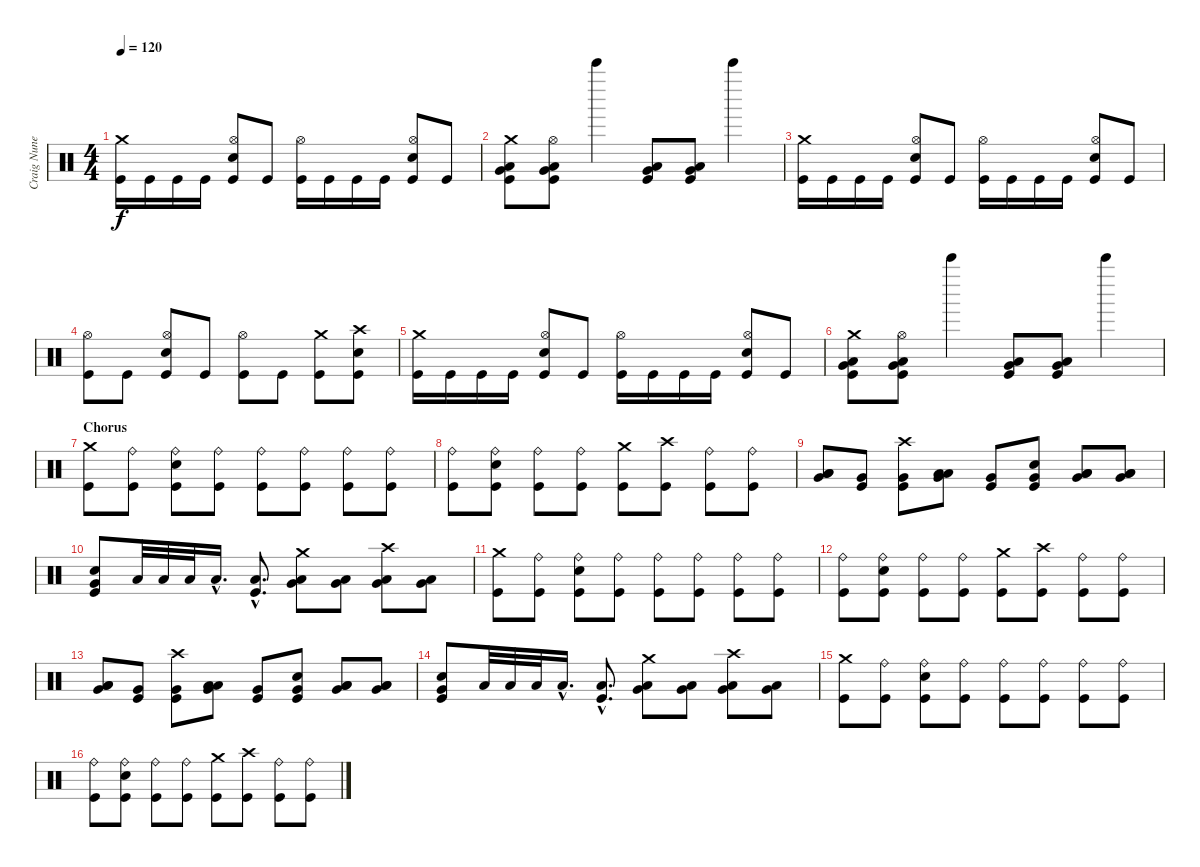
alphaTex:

\track ("Craig Nunenmacher" "Craig Nune") {instrument percussion}
\staff {score}
\articulation defaults
\ts (4 4)
\tempo 120
\clef neutral
\ks c
("Crash medium (hit)" "Kick (hit)").16{dy f} "Kick (hit)".16 "Kick (hit)".16 "Kick (hit)".16 ("Hi-Hat (open)" "Snare (hit) 2" "Kick (hit)").8 "Kick (hit)".8 ("Hi-Hat (open)" "Kick (hit)").16 "Kick (hit)".16 "Kick (hit)".16 "Kick (hit)".16 ("Hi-Hat (open)" "Snare (hit) 2" "Kick (hit)").8 "Kick (hit)".8 |
("Crash medium (hit)" "Low Tom (hit)" "Very Low Tom (hit)" "Kick (hit)").8 ("Hi-Hat (open)" "Low Tom (hit)" "Very Low Tom (hit)" "Kick (hit)").8 "Bell Tree (hit)".4 ("Low Tom (hit)" "Very Low Tom (hit)" "Kick (hit)").8 ("Low Tom (hit)" "Very Low Tom (hit)" "Kick (hit)").8 "Bell Tree (hit)".4 |
("Crash medium (hit)" "Kick (hit)").16 "Kick (hit)".16 "Kick (hit)".16 "Kick (hit)".16 ("Hi-Hat (open)" "Snare (hit) 2" "Kick (hit)").8 "Kick (hit)".8 ("Hi-Hat (open)" "Kick (hit)").16 "Kick (hit)".16 "Kick (hit)".16 "Kick (hit)".16 ("Hi-Hat (open)" "Snare (hit) 2" "Kick (hit)").8 "Kick (hit)".8 |
("Hi-Hat (open)" "Kick (hit)").8 "Kick (hit)".8 ("Hi-Hat (open)" "Snare (hit) 2" "Kick (hit)").8 "Kick (hit)".8 ("Hi-Hat (open)" "Kick (hit)").8 "Kick (hit)".8 ("Crash medium (hit)" "Kick (hit)").8 ("Crash high (hit)" "Snare (hit) 2" "Kick (hit)").8 |
("Crash medium (hit)" "Kick (hit)").16 "Kick (hit)".16 "Kick (hit)".16 "Kick (hit)".16 ("Hi-Hat (open)" "Snare (hit) 2" "Kick (hit)").8 "Kick (hit)".8 ("Hi-Hat (open)" "Kick (hit)").16 "Kick (hit)".16 "Kick (hit)".16 "Kick (hit)".16 ("Hi-Hat (open)" "Snare (hit) 2" "Kick (hit)").8 "Kick (hit)".8 |
("Crash medium (hit)" "Low Tom (hit)" "Very Low Tom (hit)" "Kick (hit)").8 ("Hi-Hat (open)" "Low Tom (hit)" "Very Low Tom (hit)" "Kick (hit)").8 "Bell Tree (hit)".4 ("Low Tom (hit)" "Very Low Tom (hit)" "Kick (hit)").8 ("Low Tom (hit)" "Very Low Tom (hit)" "Kick (hit)").8 "Bell Tree (hit)".4 |
\section ("" "Chorus")
("Crash medium (hit)" "Kick (hit)").8 ("Ride (bell)" "Kick (hit)").8 ("Ride (bell)" "Snare (hit) 2" "Kick (hit)").8 ("Ride (bell)" "Kick (hit)").8 ("Ride (bell)" "Kick (hit)").8 ("Ride (bell)" "Kick (hit)").8 ("Ride (bell)" "Kick (hit)").8 ("Ride (bell)" "Kick (hit)").8 |
("Ride (bell)" "Kick (hit)").8 ("Ride (bell)" "Snare (hit) 2" "Kick (hit)").8 ("Ride (bell)" "Kick (hit)").8 ("Ride (bell)" "Kick (hit)").8 ("Crash medium (hit)" "Kick (hit)").8 ("Crash high (hit)" "Kick (hit)").8 ("Ride (bell)" "Kick (hit)").8 ("Ride (bell)" "Kick (hit)").8 |
("Low Tom (hit)" "Low Tom (hit)" "Very Low Tom (hit)").8{bd 120} ("Very Low Tom (hit)" "Kick (hit)").8 ("Crash high (hit)" "Very Low Tom (hit)" "Kick (hit)").8 ("Low Tom (hit)" "Low Tom (hit)" "Very Low Tom (hit)").8{bd 120} ("Very Low Tom (hit)" "Kick (hit)").8 ("Snare (hit) 2" "Very Low Tom (hit)" "Kick (hit)").8 ("Low Tom (hit)" "Low Tom (hit)" "Very Low Tom (hit)").8{bd 120} ("Low Tom (hit)" "Low Tom (hit)" "Very Low Tom (hit)").8{bd 120} |
("Snare (hit) 2" "Very Low Tom (hit)" "Kick (hit)").8 "Low Tom (hit)".32 "Low Tom (hit)".32 "Low Tom (hit)".32 "Low Tom (hit)"{hac}.16{d} ("Low Tom (hit)"{hac} "Kick (hit)"{hac}).8{d} ("Crash medium (hit)" "Low Tom (hit)" "Very Low Tom (hit)").8 ("Low Tom (hit)" "Very Low Tom (hit)").8 ("Crash high (hit)" "Low Tom (hit)" "Very Low Tom (hit)").8 ("Low Tom (hit)" "Very Low Tom (hit)").8 |
("Crash medium (hit)" "Kick (hit)").8 ("Ride (bell)" "Kick (hit)").8 ("Ride (bell)" "Snare (hit) 2" "Kick (hit)").8 ("Ride (bell)" "Kick (hit)").8 ("Ride (bell)" "Kick (hit)").8 ("Ride (bell)" "Kick (hit)").8 ("Ride (bell)" "Kick (hit)").8 ("Ride (bell)" "Kick (hit)").8 |
("Ride (bell)" "Kick (hit)").8 ("Ride (bell)" "Snare (hit) 2" "Kick (hit)").8 ("Ride (bell)" "Kick (hit)").8 ("Ride (bell)" "Kick (hit)").8 ("Crash medium (hit)" "Kick (hit)").8 ("Crash high (hit)" "Kick (hit)").8 ("Ride (bell)" "Kick (hit)").8 ("Ride (bell)" "Kick (hit)").8 |
("Low Tom (hit)" "Low Tom (hit)" "Very Low Tom (hit)").8{bd 120} ("Very Low Tom (hit)" "Kick (hit)").8 ("Crash high (hit)" "Very Low Tom (hit)" "Kick (hit)").8 ("Low Tom (hit)" "Low Tom (hit)" "Very Low Tom (hit)").8{bd 120} ("Very Low Tom (hit)" "Kick (hit)").8 ("Snare (hit) 2" "Very Low Tom (hit)" "Kick (hit)").8 ("Low Tom (hit)" "Low Tom (hit)" "Very Low Tom (hit)").8{bd 120} ("Low Tom (hit)" "Low Tom (hit)" "Very Low Tom (hit)").8{bd 120} |
("Snare (hit) 2" "Very Low Tom (hit)" "Kick (hit)").8 "Low Tom (hit)".32 "Low Tom (hit)".32 "Low Tom (hit)".32 "Low Tom (hit)"{hac}.16{d} ("Low Tom (hit)"{hac} "Kick (hit)"{hac}).8{d} ("Crash medium (hit)" "Low Tom (hit)" "Very Low Tom (hit)").8 ("Low Tom (hit)" "Very Low Tom (hit)").8 ("Crash high (hit)" "Low Tom (hit)" "Very Low Tom (hit)").8 ("Low Tom (hit)" "Very Low Tom (hit)").8 |
("Crash medium (hit)" "Kick (hit)").8 ("Ride (bell)" "Kick (hit)").8 ("Ride (bell)" "Snare (hit) 2" "Kick (hit)").8 ("Ride (bell)" "Kick (hit)").8 ("Ride (bell)" "Kick (hit)").8 ("Ride (bell)" "Kick (hit)").8 ("Ride (bell)" "Kick (hit)").8 ("Ride (bell)" "Kick (hit)").8 |
("Ride (bell)" "Kick (hit)").8 ("Ride (bell)" "Snare (hit) 2" "Kick (hit)").8 ("Ride (bell)" "Kick (hit)").8 ("Ride (bell)" "Kick (hit)").8 ("Crash medium (hit)" "Kick (hit)").8 ("Crash high (hit)" "Kick (hit)").8 ("Ride (bell)" "Kick (hit)").8 ("Ride (bell)" "Kick (hit)").8
